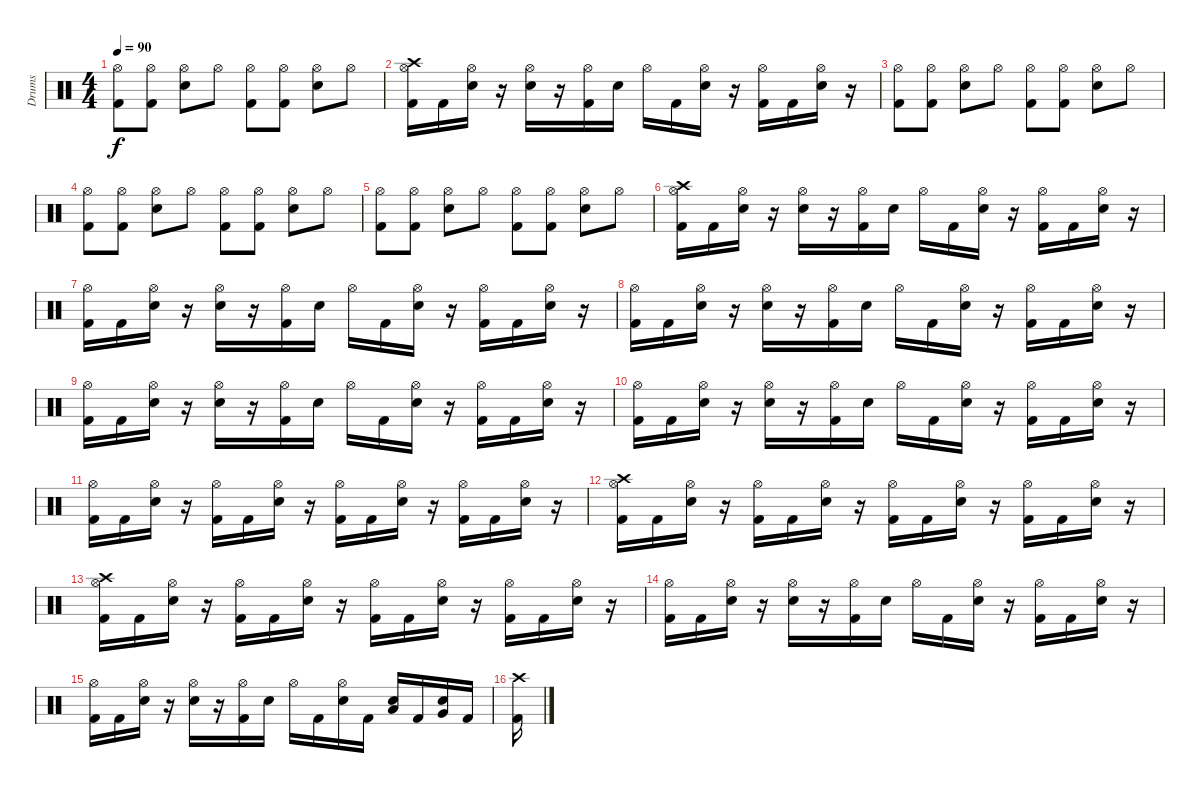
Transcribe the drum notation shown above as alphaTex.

\track ("Drums" "Drums") {instrument percussion}
\staff {score}
\articulation defaults
\ts (4 4)
\tempo 90
\clef neutral
\ks c
("Hi-Hat (open)" "Kick (hit) 2").8{dy f} ("Hi-Hat (open)" "Kick (hit) 2").8 ("Hi-Hat (open)" "Electric Snare (hit)").8 "Hi-Hat (open)".8 ("Hi-Hat (open)" "Kick (hit) 2").8 ("Hi-Hat (open)" "Kick (hit) 2").8 ("Hi-Hat (open)" "Electric Snare (hit)").8 "Hi-Hat (open)".8 |
("Crash high (hit)" "Hi-Hat (open)" "Kick (hit) 2").16 "Kick (hit) 2".16 ("Hi-Hat (open)" "Electric Snare (hit)").16 r.16 ("Hi-Hat (open)" "Electric Snare (hit)").16 r.16 ("Hi-Hat (open)" "Kick (hit) 2").16 "Electric Snare (hit)".16 "Hi-Hat (open)".16 "Kick (hit) 2".16 ("Hi-Hat (open)" "Electric Snare (hit)").16 r.16 ("Hi-Hat (open)" "Kick (hit) 2").16 "Kick (hit) 2".16 ("Hi-Hat (open)" "Electric Snare (hit)").16 r.16 |
("Hi-Hat (open)" "Kick (hit) 2").8 ("Hi-Hat (open)" "Kick (hit) 2").8 ("Hi-Hat (open)" "Electric Snare (hit)").8 "Hi-Hat (open)".8 ("Hi-Hat (open)" "Kick (hit) 2").8 ("Hi-Hat (open)" "Kick (hit) 2").8 ("Hi-Hat (open)" "Electric Snare (hit)").8 "Hi-Hat (open)".8 |
("Hi-Hat (open)" "Kick (hit) 2").8 ("Hi-Hat (open)" "Kick (hit) 2").8 ("Hi-Hat (open)" "Electric Snare (hit)").8 "Hi-Hat (open)".8 ("Hi-Hat (open)" "Kick (hit) 2").8 ("Hi-Hat (open)" "Kick (hit) 2").8 ("Hi-Hat (open)" "Electric Snare (hit)").8 "Hi-Hat (open)".8 |
("Hi-Hat (open)" "Kick (hit) 2").8 ("Hi-Hat (open)" "Kick (hit) 2").8 ("Hi-Hat (open)" "Electric Snare (hit)").8 "Hi-Hat (open)".8 ("Hi-Hat (open)" "Kick (hit) 2").8 ("Hi-Hat (open)" "Kick (hit) 2").8 ("Hi-Hat (open)" "Electric Snare (hit)").8 "Hi-Hat (open)".8 |
("Crash high (hit)" "Hi-Hat (open)" "Kick (hit) 2").16 "Kick (hit) 2".16 ("Hi-Hat (open)" "Electric Snare (hit)").16 r.16 ("Hi-Hat (open)" "Electric Snare (hit)").16 r.16 ("Hi-Hat (open)" "Kick (hit) 2").16 "Electric Snare (hit)".16 "Hi-Hat (open)".16 "Kick (hit) 2".16 ("Hi-Hat (open)" "Electric Snare (hit)").16 r.16 ("Hi-Hat (open)" "Kick (hit) 2").16 "Kick (hit) 2".16 ("Hi-Hat (open)" "Electric Snare (hit)").16 r.16 |
("Hi-Hat (open)" "Kick (hit) 2").16 "Kick (hit) 2".16 ("Hi-Hat (open)" "Electric Snare (hit)").16 r.16 ("Hi-Hat (open)" "Electric Snare (hit)").16 r.16 ("Hi-Hat (open)" "Kick (hit) 2").16 "Electric Snare (hit)".16 "Hi-Hat (open)".16 "Kick (hit) 2".16 ("Hi-Hat (open)" "Electric Snare (hit)").16 r.16 ("Hi-Hat (open)" "Kick (hit) 2").16 "Kick (hit) 2".16 ("Hi-Hat (open)" "Electric Snare (hit)").16 r.16 |
("Hi-Hat (open)" "Kick (hit) 2").16 "Kick (hit) 2".16 ("Hi-Hat (open)" "Electric Snare (hit)").16 r.16 ("Hi-Hat (open)" "Electric Snare (hit)").16 r.16 ("Hi-Hat (open)" "Kick (hit) 2").16 "Electric Snare (hit)".16 "Hi-Hat (open)".16 "Kick (hit) 2".16 ("Hi-Hat (open)" "Electric Snare (hit)").16 r.16 ("Hi-Hat (open)" "Kick (hit) 2").16 "Kick (hit) 2".16 ("Hi-Hat (open)" "Electric Snare (hit)").16 r.16 |
("Hi-Hat (open)" "Kick (hit) 2").16 "Kick (hit) 2".16 ("Hi-Hat (open)" "Electric Snare (hit)").16 r.16 ("Hi-Hat (open)" "Electric Snare (hit)").16 r.16 ("Hi-Hat (open)" "Kick (hit) 2").16 "Electric Snare (hit)".16 "Hi-Hat (open)".16 "Kick (hit) 2".16 ("Hi-Hat (open)" "Electric Snare (hit)").16 r.16 ("Hi-Hat (open)" "Kick (hit) 2").16 "Kick (hit) 2".16 ("Hi-Hat (open)" "Electric Snare (hit)").16 r.16 |
("Hi-Hat (open)" "Kick (hit) 2").16 "Kick (hit) 2".16 ("Hi-Hat (open)" "Electric Snare (hit)").16 r.16 ("Hi-Hat (open)" "Electric Snare (hit)").16 r.16 ("Hi-Hat (open)" "Kick (hit) 2").16 "Electric Snare (hit)".16 "Hi-Hat (open)".16 "Kick (hit) 2".16 ("Hi-Hat (open)" "Electric Snare (hit)").16 r.16 ("Hi-Hat (open)" "Kick (hit) 2").16 "Kick (hit) 2".16 ("Hi-Hat (open)" "Electric Snare (hit)").16 r.16 |
("Hi-Hat (open)" "Kick (hit) 2").16 "Kick (hit) 2".16 ("Hi-Hat (open)" "Electric Snare (hit)").16 r.16 ("Hi-Hat (open)" "Kick (hit) 2").16 "Kick (hit) 2".16 ("Hi-Hat (open)" "Electric Snare (hit)").16 r.16 ("Hi-Hat (open)" "Kick (hit) 2").16 "Kick (hit) 2".16 ("Hi-Hat (open)" "Electric Snare (hit)").16 r.16 ("Hi-Hat (open)" "Kick (hit) 2").16 "Kick (hit) 2".16 ("Hi-Hat (open)" "Electric Snare (hit)").16 r.16 |
("Crash high (hit)" "Hi-Hat (open)" "Kick (hit) 2").16 "Kick (hit) 2".16 ("Hi-Hat (open)" "Electric Snare (hit)").16 r.16 ("Hi-Hat (open)" "Kick (hit) 2").16 "Kick (hit) 2".16 ("Hi-Hat (open)" "Electric Snare (hit)").16 r.16 ("Hi-Hat (open)" "Kick (hit) 2").16 "Kick (hit) 2".16 ("Hi-Hat (open)" "Electric Snare (hit)").16 r.16 ("Hi-Hat (open)" "Kick (hit) 2").16 "Kick (hit) 2".16 ("Hi-Hat (open)" "Electric Snare (hit)").16 r.16 |
("Crash high (hit)" "Hi-Hat (open)" "Kick (hit) 2").16 "Kick (hit) 2".16 ("Hi-Hat (open)" "Electric Snare (hit)").16 r.16 ("Hi-Hat (open)" "Kick (hit) 2").16 "Kick (hit) 2".16 ("Hi-Hat (open)" "Electric Snare (hit)").16 r.16 ("Hi-Hat (open)" "Kick (hit) 2").16 "Kick (hit) 2".16 ("Hi-Hat (open)" "Electric Snare (hit)").16 r.16 ("Hi-Hat (open)" "Kick (hit) 2").16 "Kick (hit) 2".16 ("Hi-Hat (open)" "Electric Snare (hit)").16 r.16 |
("Hi-Hat (open)" "Kick (hit) 2").16 "Kick (hit) 2".16 ("Hi-Hat (open)" "Electric Snare (hit)").16 r.16 ("Hi-Hat (open)" "Electric Snare (hit)").16 r.16 ("Hi-Hat (open)" "Kick (hit) 2").16 "Electric Snare (hit)".16 "Hi-Hat (open)".16 "Kick (hit) 2".16 ("Hi-Hat (open)" "Electric Snare (hit)").16 r.16 ("Hi-Hat (open)" "Kick (hit) 2").16 "Kick (hit) 2".16 ("Hi-Hat (open)" "Electric Snare (hit)").16 r.16 |
("Hi-Hat (open)" "Kick (hit) 2").16 "Kick (hit) 2".16 ("Hi-Hat (open)" "Electric Snare (hit)").16 r.16 ("Hi-Hat (open)" "Electric Snare (hit)").16 r.16 ("Hi-Hat (open)" "Kick (hit) 2").16 "Electric Snare (hit)".16 "Hi-Hat (open)".16 "Kick (hit) 2".16 ("Hi-Hat (open)" "Electric Snare (hit)").16 "Kick (hit) 2".16 ("Electric Snare (hit)" "Low Tom (hit)").16 "Kick (hit) 2".16 ("Electric Snare (hit)" "Very Low Tom (hit)").16 "Kick (hit) 2".16 |
("Crash high (hit)" "Kick (hit) 2").16
